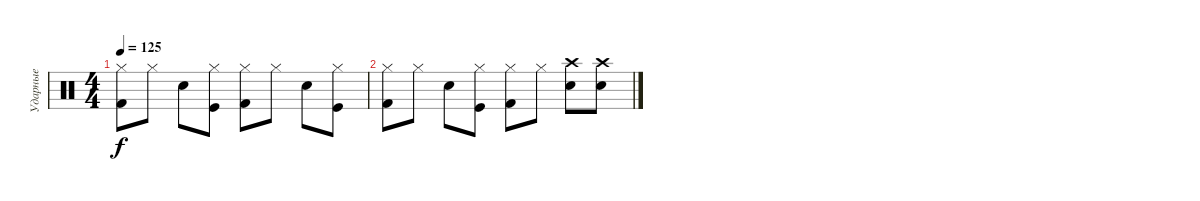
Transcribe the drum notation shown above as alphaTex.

\track ("Ударные" "Ударные") {instrument percussion}
\staff {score}
\articulation defaults
\ts (4 4)
\tempo 125
\clef neutral
\ks c
("Hi-Hat (closed)" "Kick (hit) 2").8{dy f} "Hi-Hat (closed)".8 "Electric Snare (hit)".8 ("Hi-Hat (closed)" "Kick (hit)").8 ("Hi-Hat (closed)" "Kick (hit) 2").8 "Hi-Hat (closed)".8 "Electric Snare (hit)".8 ("Hi-Hat (closed)" "Kick (hit)").8 |
("Hi-Hat (closed)" "Kick (hit) 2").8 "Hi-Hat (closed)".8 "Electric Snare (hit)".8 ("Hi-Hat (closed)" "Kick (hit)").8 ("Hi-Hat (closed)" "Kick (hit) 2").8 "Hi-Hat (closed)".8 ("Crash high (hit)" "Electric Snare (hit)").8 ("Crash high (hit)" "Electric Snare (hit)").8
